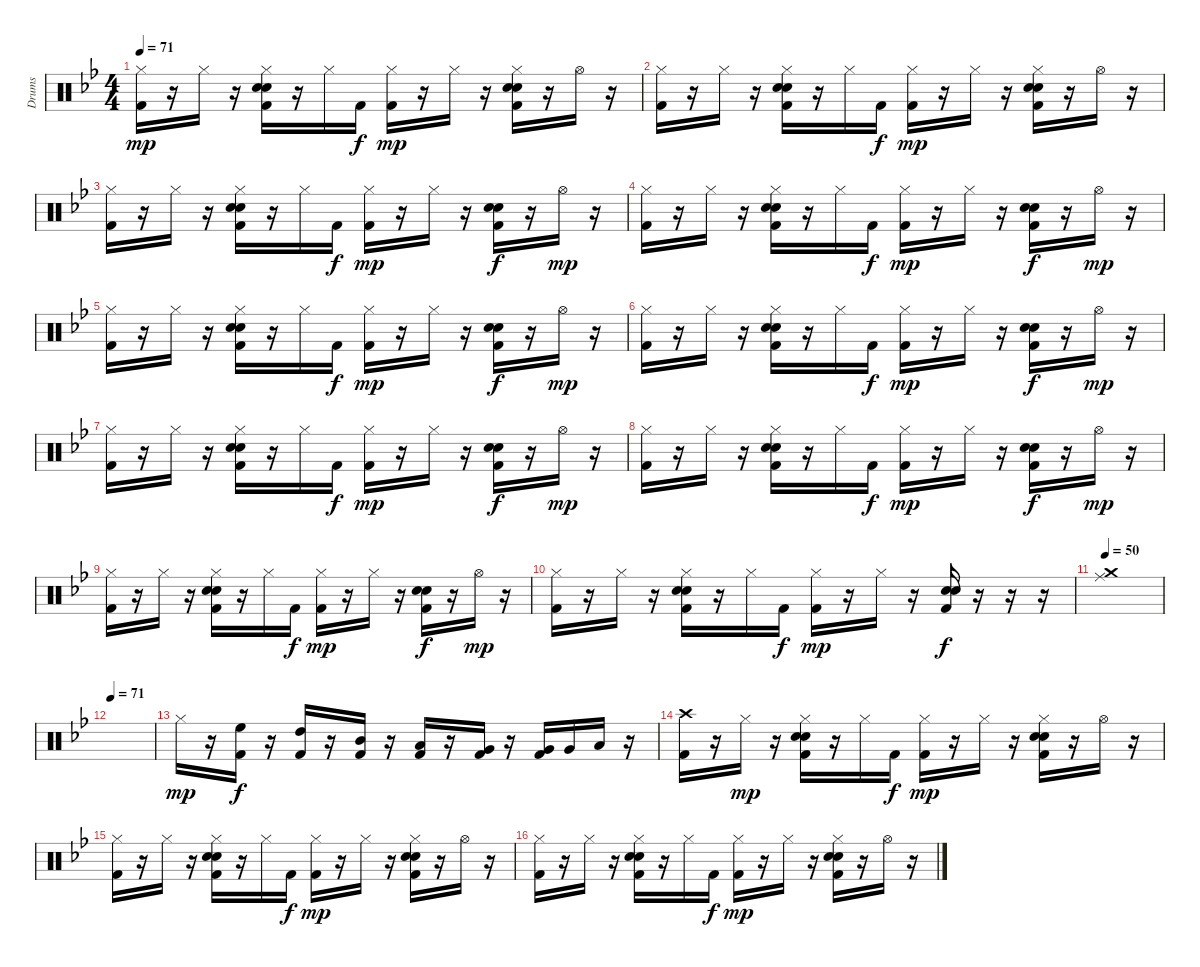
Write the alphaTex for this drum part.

\track ("Drums" "Drums") {instrument percussion}
\staff {score}
\articulation defaults
\ts (4 4)
\tempo 71
\clef neutral
\ks gminor
("Hi-Hat (closed)" "Kick (hit) 2").16{dy mp} r.16 "Hi-Hat (closed)".16 r.16 ("Hi-Hat (closed)" "Electric Snare (hit)" "Snare (hit) 2" "Kick (hit) 2").16 r.16 "Hi-Hat (closed)".16 "Kick (hit) 2".16{dy f} ("Hi-Hat (closed)" "Kick (hit) 2").16{dy mp} r.16 "Hi-Hat (closed)".16 r.16 ("Hi-Hat (closed)" "Electric Snare (hit)" "Snare (hit) 2" "Kick (hit) 2").16 r.16 "Hi-Hat (open)".16 r.16 |
("Hi-Hat (closed)" "Kick (hit) 2").16 r.16 "Hi-Hat (closed)".16 r.16 ("Hi-Hat (closed)" "Electric Snare (hit)" "Snare (hit) 2" "Kick (hit) 2").16 r.16 "Hi-Hat (closed)".16 "Kick (hit) 2".16{dy f} ("Hi-Hat (closed)" "Kick (hit) 2").16{dy mp} r.16 "Hi-Hat (closed)".16 r.16 ("Hi-Hat (closed)" "Electric Snare (hit)" "Snare (hit) 2" "Kick (hit) 2").16 r.16 "Hi-Hat (open)".16 r.16 |
("Hi-Hat (closed)" "Kick (hit) 2").16 r.16 "Hi-Hat (closed)".16 r.16 ("Hi-Hat (closed)" "Electric Snare (hit)" "Snare (hit) 2" "Kick (hit) 2").16 r.16 "Hi-Hat (closed)".16 "Kick (hit) 2".16{dy f} ("Hi-Hat (closed)" "Kick (hit) 2").16{dy mp} r.16 "Hi-Hat (closed)".16 r.16 ("Electric Snare (hit)" "Snare (hit) 2" "Kick (hit) 2").16{dy f} r.16 "Hi-Hat (open)".16{dy mp} r.16 |
("Hi-Hat (closed)" "Kick (hit) 2").16 r.16 "Hi-Hat (closed)".16 r.16 ("Hi-Hat (closed)" "Electric Snare (hit)" "Snare (hit) 2" "Kick (hit) 2").16 r.16 "Hi-Hat (closed)".16 "Kick (hit) 2".16{dy f} ("Hi-Hat (closed)" "Kick (hit) 2").16{dy mp} r.16 "Hi-Hat (closed)".16 r.16 ("Electric Snare (hit)" "Snare (hit) 2" "Kick (hit) 2").16{dy f} r.16 "Hi-Hat (open)".16{dy mp} r.16 |
("Hi-Hat (closed)" "Kick (hit) 2").16 r.16 "Hi-Hat (closed)".16 r.16 ("Hi-Hat (closed)" "Electric Snare (hit)" "Snare (hit) 2" "Kick (hit) 2").16 r.16 "Hi-Hat (closed)".16 "Kick (hit) 2".16{dy f} ("Hi-Hat (closed)" "Kick (hit) 2").16{dy mp} r.16 "Hi-Hat (closed)".16 r.16 ("Electric Snare (hit)" "Snare (hit) 2" "Kick (hit) 2").16{dy f} r.16 "Hi-Hat (open)".16{dy mp} r.16 |
("Hi-Hat (closed)" "Kick (hit) 2").16 r.16 "Hi-Hat (closed)".16 r.16 ("Hi-Hat (closed)" "Electric Snare (hit)" "Snare (hit) 2" "Kick (hit) 2").16 r.16 "Hi-Hat (closed)".16 "Kick (hit) 2".16{dy f} ("Hi-Hat (closed)" "Kick (hit) 2").16{dy mp} r.16 "Hi-Hat (closed)".16 r.16 ("Electric Snare (hit)" "Snare (hit) 2" "Kick (hit) 2").16{dy f} r.16 "Hi-Hat (open)".16{dy mp} r.16 |
("Hi-Hat (closed)" "Kick (hit) 2").16 r.16 "Hi-Hat (closed)".16 r.16 ("Hi-Hat (closed)" "Electric Snare (hit)" "Snare (hit) 2" "Kick (hit) 2").16 r.16 "Hi-Hat (closed)".16 "Kick (hit) 2".16{dy f} ("Hi-Hat (closed)" "Kick (hit) 2").16{dy mp} r.16 "Hi-Hat (closed)".16 r.16 ("Electric Snare (hit)" "Snare (hit) 2" "Kick (hit) 2").16{dy f} r.16 "Hi-Hat (open)".16{dy mp} r.16 |
("Hi-Hat (closed)" "Kick (hit) 2").16 r.16 "Hi-Hat (closed)".16 r.16 ("Hi-Hat (closed)" "Electric Snare (hit)" "Snare (hit) 2" "Kick (hit) 2").16 r.16 "Hi-Hat (closed)".16 "Kick (hit) 2".16{dy f} ("Hi-Hat (closed)" "Kick (hit) 2").16{dy mp} r.16 "Hi-Hat (closed)".16 r.16 ("Electric Snare (hit)" "Snare (hit) 2" "Kick (hit) 2").16{dy f} r.16 "Hi-Hat (open)".16{dy mp} r.16 |
("Hi-Hat (closed)" "Kick (hit) 2").16 r.16 "Hi-Hat (closed)".16 r.16 ("Hi-Hat (closed)" "Electric Snare (hit)" "Snare (hit) 2" "Kick (hit) 2").16 r.16 "Hi-Hat (closed)".16 "Kick (hit) 2".16{dy f} ("Hi-Hat (closed)" "Kick (hit) 2").16{dy mp} r.16 "Hi-Hat (closed)".16 r.16 ("Electric Snare (hit)" "Snare (hit) 2" "Kick (hit) 2").16{dy f} r.16 "Hi-Hat (open)".16{dy mp} r.16 |
("Hi-Hat (closed)" "Kick (hit) 2").16 r.16 "Hi-Hat (closed)".16 r.16 ("Hi-Hat (closed)" "Electric Snare (hit)" "Snare (hit) 2" "Kick (hit) 2").16 r.16 "Hi-Hat (closed)".16 "Kick (hit) 2".16{dy f} ("Hi-Hat (closed)" "Kick (hit) 2").16{dy mp} r.16 "Hi-Hat (closed)".16 r.16 ("Electric Snare (hit)" "Snare (hit) 2" "Kick (hit) 2").16{dy f} r.16 r.16 r.16 |
\tempo 50
("Ride (middle)" "Crash medium (hit)").1 |
\tempo 71
|
"Hi-Hat (closed)".16{dy mp} r.16 ("High Floor Tom (hit)" "Kick (hit) 2").16{dy f} r.16 ("High Tom (hit)" "Kick (hit) 2").16 r.16 ("Mid Tom (hit)" "Kick (hit) 2").16 r.16 ("Low Tom (hit)" "Kick (hit) 2").16 r.16 ("Very Low Tom (hit)" "Kick (hit) 2").16 r.16 ("Very Low Tom (hit)" "Kick (hit) 2").16 "Very Low Tom (hit)".16 "Low Floor Tom (hit)".16 r.16 |
("Crash high (hit)" "Kick (hit) 2").16 r.16 "Hi-Hat (closed)".16{dy mp} r.16 ("Hi-Hat (closed)" "Electric Snare (hit)" "Snare (hit) 2" "Kick (hit) 2").16 r.16 "Hi-Hat (closed)".16 "Kick (hit) 2".16{dy f} ("Hi-Hat (closed)" "Kick (hit) 2").16{dy mp} r.16 "Hi-Hat (closed)".16 r.16 ("Hi-Hat (closed)" "Electric Snare (hit)" "Snare (hit) 2" "Kick (hit) 2").16 r.16 "Hi-Hat (open)".16 r.16 |
("Hi-Hat (closed)" "Kick (hit) 2").16 r.16 "Hi-Hat (closed)".16 r.16 ("Hi-Hat (closed)" "Electric Snare (hit)" "Snare (hit) 2" "Kick (hit) 2").16 r.16 "Hi-Hat (closed)".16 "Kick (hit) 2".16{dy f} ("Hi-Hat (closed)" "Kick (hit) 2").16{dy mp} r.16 "Hi-Hat (closed)".16 r.16 ("Hi-Hat (closed)" "Electric Snare (hit)" "Snare (hit) 2" "Kick (hit) 2").16 r.16 "Hi-Hat (open)".16 r.16 |
("Hi-Hat (closed)" "Kick (hit) 2").16 r.16 "Hi-Hat (closed)".16 r.16 ("Hi-Hat (closed)" "Electric Snare (hit)" "Snare (hit) 2" "Kick (hit) 2").16 r.16 "Hi-Hat (closed)".16 "Kick (hit) 2".16{dy f} ("Hi-Hat (closed)" "Kick (hit) 2").16{dy mp} r.16 "Hi-Hat (closed)".16 r.16 ("Hi-Hat (closed)" "Electric Snare (hit)" "Snare (hit) 2" "Kick (hit) 2").16 r.16 "Hi-Hat (open)".16 r.16
